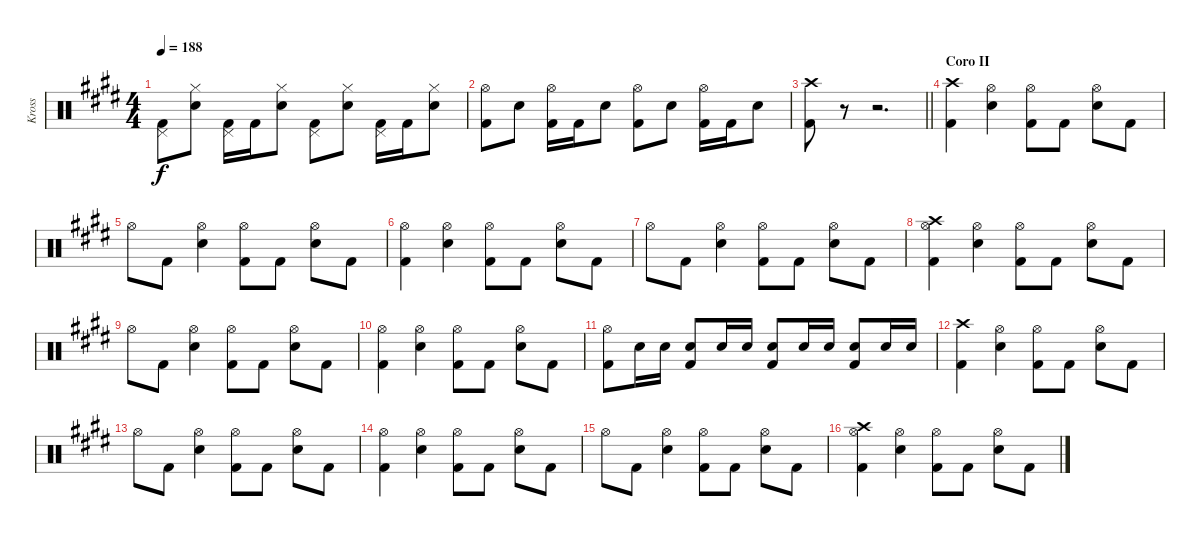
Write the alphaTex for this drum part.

\track ("Kross" "Kross") {instrument percussion}
\staff {score}
\articulation defaults
\ts (4 4)
\tempo 188
\clef neutral
\ks e
("Pedal Hi-Hat (hit)" "Kick (hit) 2").8{dy f} ("Hi-Hat (closed)" "Electric Snare (hit)").8 ("Pedal Hi-Hat (hit)" "Kick (hit) 2").16 "Kick (hit) 2".16 ("Hi-Hat (closed)" "Electric Snare (hit)").8 ("Pedal Hi-Hat (hit)" "Kick (hit) 2").8 ("Hi-Hat (closed)" "Electric Snare (hit)").8 ("Pedal Hi-Hat (hit)" "Kick (hit) 2").16 "Kick (hit) 2".16 ("Hi-Hat (closed)" "Electric Snare (hit)").8 |
("Hi-Hat (open)" "Kick (hit) 2").8 "Electric Snare (hit)".8 ("Hi-Hat (open)" "Kick (hit) 2").16 "Kick (hit) 2".16 "Electric Snare (hit)".8 ("Hi-Hat (open)" "Kick (hit) 2").8 "Electric Snare (hit)".8 ("Hi-Hat (open)" "Kick (hit) 2").16 "Kick (hit) 2".16 "Electric Snare (hit)".8 |
\barLineRight lightlight
("Crash high (hit)" "Kick (hit) 2").8 r.8 r.2{d} |
\section ("" "Coro II")
("Crash high (hit)" "Kick (hit) 2").4 ("Hi-Hat (open)" "Electric Snare (hit)").4 ("Hi-Hat (open)" "Kick (hit) 2").8 "Kick (hit) 2".8 ("Hi-Hat (open)" "Electric Snare (hit)").8 "Kick (hit) 2".8 |
"Hi-Hat (open)".8 "Kick (hit) 2".8 ("Hi-Hat (open)" "Electric Snare (hit)").4 ("Hi-Hat (open)" "Kick (hit) 2").8 "Kick (hit) 2".8 ("Hi-Hat (open)" "Electric Snare (hit)").8 "Kick (hit) 2".8 |
("Hi-Hat (open)" "Kick (hit) 2").4 ("Hi-Hat (open)" "Electric Snare (hit)").4 ("Hi-Hat (open)" "Kick (hit) 2").8 "Kick (hit) 2".8 ("Hi-Hat (open)" "Electric Snare (hit)").8 "Kick (hit) 2".8 |
"Hi-Hat (open)".8 "Kick (hit) 2".8 ("Hi-Hat (open)" "Electric Snare (hit)").4 ("Hi-Hat (open)" "Kick (hit) 2").8 "Kick (hit) 2".8 ("Hi-Hat (open)" "Electric Snare (hit)").8 "Kick (hit) 2".8 |
("Crash high (hit)" "Hi-Hat (open)" "Kick (hit) 2").4 ("Hi-Hat (open)" "Electric Snare (hit)").4 ("Hi-Hat (open)" "Kick (hit) 2").8 "Kick (hit) 2".8 ("Hi-Hat (open)" "Electric Snare (hit)").8 "Kick (hit) 2".8 |
"Hi-Hat (open)".8 "Kick (hit) 2".8 ("Hi-Hat (open)" "Electric Snare (hit)").4 ("Hi-Hat (open)" "Kick (hit) 2").8 "Kick (hit) 2".8 ("Hi-Hat (open)" "Electric Snare (hit)").8 "Kick (hit) 2".8 |
("Hi-Hat (open)" "Kick (hit) 2").4 ("Hi-Hat (open)" "Electric Snare (hit)").4 ("Hi-Hat (open)" "Kick (hit) 2").8 "Kick (hit) 2".8 ("Hi-Hat (open)" "Electric Snare (hit)").8 "Kick (hit) 2".8 |
("Hi-Hat (open)" "Kick (hit) 2").8 "Electric Snare (hit)".16 "Electric Snare (hit)".16 ("Electric Snare (hit)" "Kick (hit) 2").8 "Electric Snare (hit)".16 "Electric Snare (hit)".16 ("Electric Snare (hit)" "Kick (hit) 2").8 "Electric Snare (hit)".16 "Electric Snare (hit)".16 ("Electric Snare (hit)" "Kick (hit) 2").8 "Electric Snare (hit)".16 "Electric Snare (hit)".16 |
("Crash high (hit)" "Kick (hit) 2").4 ("Hi-Hat (open)" "Electric Snare (hit)").4 ("Hi-Hat (open)" "Kick (hit) 2").8 "Kick (hit) 2".8 ("Hi-Hat (open)" "Electric Snare (hit)").8 "Kick (hit) 2".8 |
"Hi-Hat (open)".8 "Kick (hit) 2".8 ("Hi-Hat (open)" "Electric Snare (hit)").4 ("Hi-Hat (open)" "Kick (hit) 2").8 "Kick (hit) 2".8 ("Hi-Hat (open)" "Electric Snare (hit)").8 "Kick (hit) 2".8 |
("Hi-Hat (open)" "Kick (hit) 2").4 ("Hi-Hat (open)" "Electric Snare (hit)").4 ("Hi-Hat (open)" "Kick (hit) 2").8 "Kick (hit) 2".8 ("Hi-Hat (open)" "Electric Snare (hit)").8 "Kick (hit) 2".8 |
"Hi-Hat (open)".8 "Kick (hit) 2".8 ("Hi-Hat (open)" "Electric Snare (hit)").4 ("Hi-Hat (open)" "Kick (hit) 2").8 "Kick (hit) 2".8 ("Hi-Hat (open)" "Electric Snare (hit)").8 "Kick (hit) 2".8 |
("Crash high (hit)" "Hi-Hat (open)" "Kick (hit) 2").4 ("Hi-Hat (open)" "Electric Snare (hit)").4 ("Hi-Hat (open)" "Kick (hit) 2").8 "Kick (hit) 2".8 ("Hi-Hat (open)" "Electric Snare (hit)").8 "Kick (hit) 2".8
